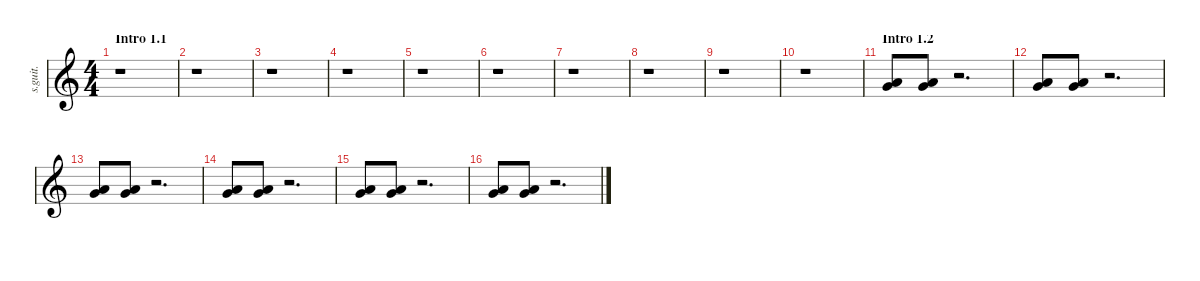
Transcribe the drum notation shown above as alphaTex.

\defaultSystemsLayout 4
\hideDynamics
\bracketExtendMode nobrackets
\track ("Clown" "s.guit.") {instrument percussion}
\staff {score}
\articulation defaults
\ts (4 4)
\beaming (8 2 2 2 2)
\section ("" "Intro 1.1")
\tempo (192 hide)
\clef g2
\ks c
r.1{dy f} |
r.1 |
r.1 |
r.1 |
r.1 |
r.1 |
r.1 |
r.1 |
r.1 |
r.1 |
\section ("" "Intro 1.2")
("Very Low Tom (hit)" "Low Floor Tom (hit)").8{lyrics (0 "") lyrics (1 "") lyrics (2 "") lyrics (3 "") lyrics (4 "")} ("Very Low Tom (hit)" "Low Floor Tom (hit)").8{lyrics (0 "") lyrics (1 "") lyrics (2 "") lyrics (3 "") lyrics (4 "")} r.2{d} |
("Very Low Tom (hit)" "Low Floor Tom (hit)").8{lyrics (0 "") lyrics (1 "") lyrics (2 "") lyrics (3 "") lyrics (4 "")} ("Very Low Tom (hit)" "Low Floor Tom (hit)").8{lyrics (0 "") lyrics (1 "") lyrics (2 "") lyrics (3 "") lyrics (4 "")} r.2{d} |
("Very Low Tom (hit)" "Low Floor Tom (hit)").8{lyrics (0 "") lyrics (1 "") lyrics (2 "") lyrics (3 "") lyrics (4 "")} ("Very Low Tom (hit)" "Low Floor Tom (hit)").8{lyrics (0 "") lyrics (1 "") lyrics (2 "") lyrics (3 "") lyrics (4 "")} r.2{d} |
("Very Low Tom (hit)" "Low Floor Tom (hit)").8{lyrics (0 "") lyrics (1 "") lyrics (2 "") lyrics (3 "") lyrics (4 "")} ("Very Low Tom (hit)" "Low Floor Tom (hit)").8{lyrics (0 "") lyrics (1 "") lyrics (2 "") lyrics (3 "") lyrics (4 "")} r.2{d} |
("Very Low Tom (hit)" "Low Floor Tom (hit)").8{lyrics (0 "") lyrics (1 "") lyrics (2 "") lyrics (3 "") lyrics (4 "")} ("Very Low Tom (hit)" "Low Floor Tom (hit)").8{lyrics (0 "") lyrics (1 "") lyrics (2 "") lyrics (3 "") lyrics (4 "")} r.2{d} |
("Very Low Tom (hit)" "Low Floor Tom (hit)").8{lyrics (0 "") lyrics (1 "") lyrics (2 "") lyrics (3 "") lyrics (4 "")} ("Very Low Tom (hit)" "Low Floor Tom (hit)").8{lyrics (0 "") lyrics (1 "") lyrics (2 "") lyrics (3 "") lyrics (4 "")} r.2{d}
